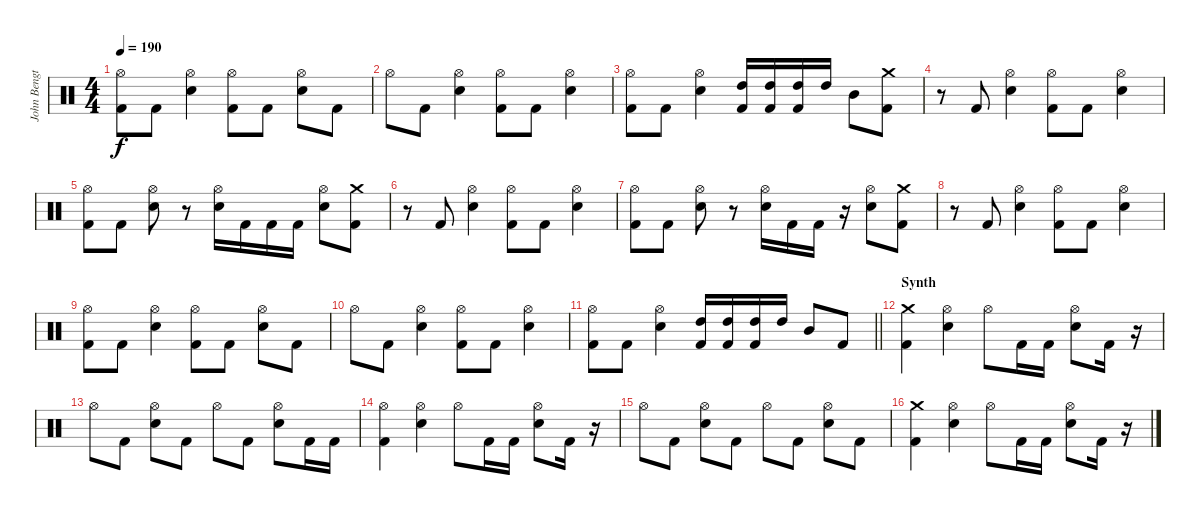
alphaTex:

\track ("John Bengtsson" "John Bengt") {instrument percussion}
\staff {score}
\articulation defaults
\ts (4 4)
\tempo 190
\clef neutral
\ks c
("Hi-Hat (open)" "Kick (hit) 2").8{dy f} "Kick (hit) 2".8 ("Hi-Hat (open)" "Electric Snare (hit)").4 ("Hi-Hat (open)" "Kick (hit) 2").8 "Kick (hit) 2".8 ("Hi-Hat (open)" "Electric Snare (hit)").8 "Kick (hit) 2".8 |
"Hi-Hat (open)".8 "Kick (hit) 2".8 ("Hi-Hat (open)" "Electric Snare (hit)").4 ("Hi-Hat (open)" "Kick (hit) 2").8 "Kick (hit) 2".8 ("Hi-Hat (open)" "Electric Snare (hit)").4 |
("Hi-Hat (open)" "Kick (hit) 2").8 "Kick (hit) 2".8 ("Hi-Hat (open)" "Electric Snare (hit)").4 ("High Tom (hit)" "Kick (hit) 2").16 ("High Tom (hit)" "Kick (hit) 2").16 ("High Tom (hit)" "Kick (hit) 2").16 "High Tom (hit)".16 "Mid Tom (hit)".8 ("Crash medium (hit)" "Kick (hit) 2").8 |
r.8 "Kick (hit) 2".8 ("Hi-Hat (open)" "Electric Snare (hit)").4 ("Hi-Hat (open)" "Kick (hit) 2").8 "Kick (hit) 2".8 ("Hi-Hat (open)" "Electric Snare (hit)").4 |
("Hi-Hat (open)" "Kick (hit) 2").8 "Kick (hit) 2".8 ("Hi-Hat (open)" "Electric Snare (hit)").8 r.8 ("Hi-Hat (open)" "Electric Snare (hit)").16 "Kick (hit) 2".16 "Kick (hit) 2".16 "Kick (hit) 2".16 ("Hi-Hat (open)" "Electric Snare (hit)").8 ("Crash medium (hit)" "Kick (hit) 2").8 |
r.8 "Kick (hit) 2".8 ("Hi-Hat (open)" "Electric Snare (hit)").4 ("Hi-Hat (open)" "Kick (hit) 2").8 "Kick (hit) 2".8 ("Hi-Hat (open)" "Electric Snare (hit)").4 |
("Hi-Hat (open)" "Kick (hit) 2").8 "Kick (hit) 2".8 ("Hi-Hat (open)" "Electric Snare (hit)").8 r.8 ("Hi-Hat (open)" "Electric Snare (hit)").16 "Kick (hit) 2".16 "Kick (hit) 2".16 r.16 ("Hi-Hat (open)" "Electric Snare (hit)").8 ("Crash medium (hit)" "Kick (hit) 2").8 |
r.8 "Kick (hit) 2".8 ("Hi-Hat (open)" "Electric Snare (hit)").4 ("Hi-Hat (open)" "Kick (hit) 2").8 "Kick (hit) 2".8 ("Hi-Hat (open)" "Electric Snare (hit)").4 |
("Hi-Hat (open)" "Kick (hit) 2").8 "Kick (hit) 2".8 ("Hi-Hat (open)" "Electric Snare (hit)").4 ("Hi-Hat (open)" "Kick (hit) 2").8 "Kick (hit) 2".8 ("Hi-Hat (open)" "Electric Snare (hit)").8 "Kick (hit) 2".8 |
"Hi-Hat (open)".8 "Kick (hit) 2".8 ("Hi-Hat (open)" "Electric Snare (hit)").4 ("Hi-Hat (open)" "Kick (hit) 2").8 "Kick (hit) 2".8 ("Hi-Hat (open)" "Electric Snare (hit)").4 |
\barLineRight lightlight
("Hi-Hat (open)" "Kick (hit) 2").8 "Kick (hit) 2".8 ("Hi-Hat (open)" "Electric Snare (hit)").4 ("High Tom (hit)" "Kick (hit) 2").16 ("High Tom (hit)" "Kick (hit) 2").16 ("High Tom (hit)" "Kick (hit) 2").16 "High Tom (hit)".16 "Mid Tom (hit)".8 "Kick (hit) 2".8 |
\section ("" "Synth")
("Crash medium (hit)" "Kick (hit) 2").4 ("Hi-Hat (open)" "Electric Snare (hit)").4 "Hi-Hat (open)".8 "Kick (hit) 2".16 "Kick (hit) 2".16 ("Hi-Hat (open)" "Electric Snare (hit)").8 "Kick (hit) 2".16 r.16 |
"Hi-Hat (open)".8 "Kick (hit) 2".8 ("Hi-Hat (open)" "Electric Snare (hit)").8 "Kick (hit) 2".8 "Hi-Hat (open)".8 "Kick (hit) 2".8 ("Hi-Hat (open)" "Electric Snare (hit)").8 "Kick (hit) 2".16 "Kick (hit) 2".16 |
("Hi-Hat (open)" "Kick (hit) 2").4 ("Hi-Hat (open)" "Electric Snare (hit)").4 "Hi-Hat (open)".8 "Kick (hit) 2".16 "Kick (hit) 2".16 ("Hi-Hat (open)" "Electric Snare (hit)").8 "Kick (hit) 2".16 r.16 |
"Hi-Hat (open)".8 "Kick (hit) 2".8 ("Hi-Hat (open)" "Electric Snare (hit)").8 "Kick (hit) 2".8 "Hi-Hat (open)".8 "Kick (hit) 2".8 ("Hi-Hat (open)" "Electric Snare (hit)").8 "Kick (hit) 2".8 |
("Crash medium (hit)" "Kick (hit) 2").4 ("Hi-Hat (open)" "Electric Snare (hit)").4 "Hi-Hat (open)".8 "Kick (hit) 2".16 "Kick (hit) 2".16 ("Hi-Hat (open)" "Electric Snare (hit)").8 "Kick (hit) 2".16 r.16
